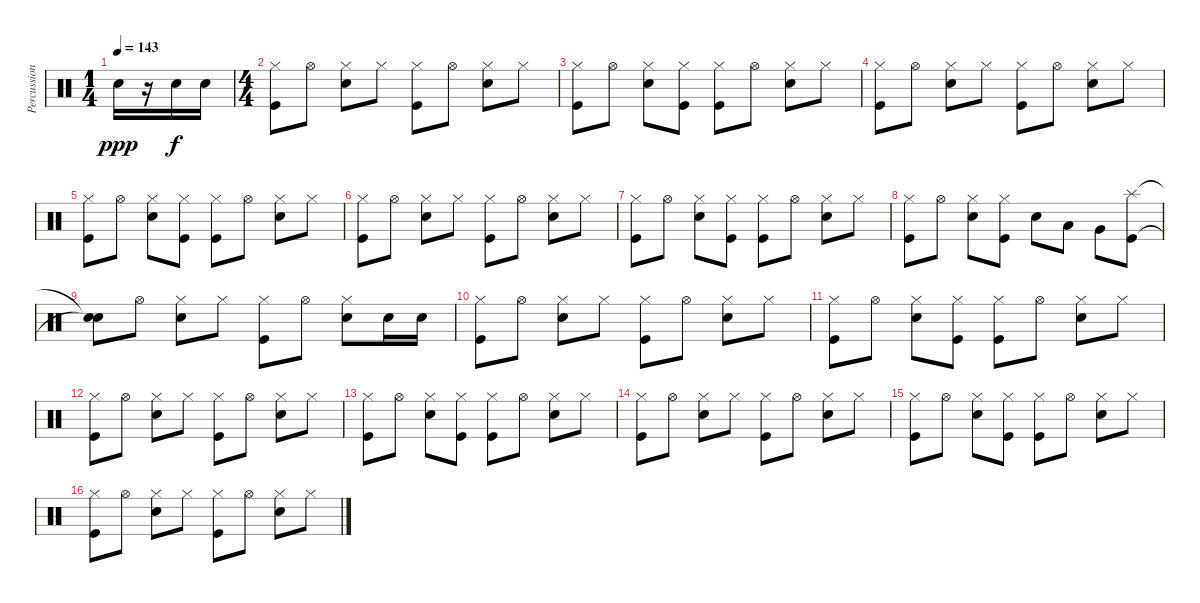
\track ("Percussion" "Percussion") {instrument percussion}
\staff {score}
\articulation defaults
\ts (1 4)
\tempo 143
\clef neutral
\ks c "Snare (hit) 2".16{dy ppp}
r.16 "Snare (hit) 2".16{dy f} "Snare (hit) 2".16 |
\ts (4 4)
("Hi-Hat (closed)" "Kick (hit)").8 "Hi-Hat (open)".8 ("Hi-Hat (closed)" "Snare (hit) 2").8 "Hi-Hat (closed)".8 ("Hi-Hat (closed)" "Kick (hit)").8 "Hi-Hat (open)".8 ("Hi-Hat (closed)" "Snare (hit) 2").8 "Hi-Hat (closed)".8 |
("Hi-Hat (closed)" "Kick (hit)").8 "Hi-Hat (open)".8 ("Hi-Hat (closed)" "Snare (hit) 2").8 ("Hi-Hat (closed)" "Kick (hit)").8 ("Hi-Hat (closed)" "Kick (hit)").8 "Hi-Hat (open)".8 ("Hi-Hat (closed)" "Snare (hit) 2").8 "Hi-Hat (closed)".8 |
("Hi-Hat (closed)" "Kick (hit)").8 "Hi-Hat (open)".8 ("Hi-Hat (closed)" "Snare (hit) 2").8 "Hi-Hat (closed)".8 ("Hi-Hat (closed)" "Kick (hit)").8 "Hi-Hat (open)".8 ("Hi-Hat (closed)" "Snare (hit) 2").8 "Hi-Hat (closed)".8 |
("Hi-Hat (closed)" "Kick (hit)").8 "Hi-Hat (open)".8 ("Hi-Hat (closed)" "Snare (hit) 2").8 ("Hi-Hat (closed)" "Kick (hit)").8 ("Hi-Hat (closed)" "Kick (hit)").8 "Hi-Hat (open)".8 ("Hi-Hat (closed)" "Snare (hit) 2").8 "Hi-Hat (closed)".8 |
("Hi-Hat (closed)" "Kick (hit)").8 "Hi-Hat (open)".8 ("Hi-Hat (closed)" "Snare (hit) 2").8 "Hi-Hat (closed)".8 ("Hi-Hat (closed)" "Kick (hit)").8 "Hi-Hat (open)".8 ("Hi-Hat (closed)" "Snare (hit) 2").8 "Hi-Hat (closed)".8 |
("Hi-Hat (closed)" "Kick (hit)").8 "Hi-Hat (open)".8 ("Hi-Hat (closed)" "Snare (hit) 2").8 ("Hi-Hat (closed)" "Kick (hit)").8 ("Hi-Hat (closed)" "Kick (hit)").8 "Hi-Hat (open)".8 ("Hi-Hat (closed)" "Snare (hit) 2").8 "Hi-Hat (closed)".8 |
("Hi-Hat (closed)" "Kick (hit)").8 "Hi-Hat (open)".8 ("Hi-Hat (closed)" "Snare (hit) 2").8 ("Hi-Hat (closed)" "Kick (hit)").8 "Snare (hit) 2".8 "Low Tom (hit)".8 "Very Low Tom (hit)".8 ("Splash (hit)" "Kick (hit)").8 |
("Snare (hit)"{t} "Snare (hit)"{t}).8 "Hi-Hat (open)".8 ("Hi-Hat (closed)" "Snare (hit) 2").8 "Hi-Hat (closed)".8 ("Hi-Hat (closed)" "Kick (hit)").8 "Hi-Hat (open)".8 ("Hi-Hat (closed)" "Snare (hit) 2").8 "Snare (hit) 2".16 "Snare (hit) 2".16 |
("Hi-Hat (closed)" "Kick (hit)").8 "Hi-Hat (open)".8 ("Hi-Hat (closed)" "Snare (hit) 2").8 "Hi-Hat (closed)".8 ("Hi-Hat (closed)" "Kick (hit)").8 "Hi-Hat (open)".8 ("Hi-Hat (closed)" "Snare (hit) 2").8 "Hi-Hat (closed)".8 |
("Hi-Hat (closed)" "Kick (hit)").8 "Hi-Hat (open)".8 ("Hi-Hat (closed)" "Snare (hit) 2").8 ("Hi-Hat (closed)" "Kick (hit)").8 ("Hi-Hat (closed)" "Kick (hit)").8 "Hi-Hat (open)".8 ("Hi-Hat (closed)" "Snare (hit) 2").8 "Hi-Hat (closed)".8 |
("Hi-Hat (closed)" "Kick (hit)").8 "Hi-Hat (open)".8 ("Hi-Hat (closed)" "Snare (hit) 2").8 "Hi-Hat (closed)".8 ("Hi-Hat (closed)" "Kick (hit)").8 "Hi-Hat (open)".8 ("Hi-Hat (closed)" "Snare (hit) 2").8 "Hi-Hat (closed)".8 |
("Hi-Hat (closed)" "Kick (hit)").8 "Hi-Hat (open)".8 ("Hi-Hat (closed)" "Snare (hit) 2").8 ("Hi-Hat (closed)" "Kick (hit)").8 ("Hi-Hat (closed)" "Kick (hit)").8 "Hi-Hat (open)".8 ("Hi-Hat (closed)" "Snare (hit) 2").8 "Hi-Hat (closed)".8 |
("Hi-Hat (closed)" "Kick (hit)").8 "Hi-Hat (open)".8 ("Hi-Hat (closed)" "Snare (hit) 2").8 "Hi-Hat (closed)".8 ("Hi-Hat (closed)" "Kick (hit)").8 "Hi-Hat (open)".8 ("Hi-Hat (closed)" "Snare (hit) 2").8 "Hi-Hat (closed)".8 |
("Hi-Hat (closed)" "Kick (hit)").8 "Hi-Hat (open)".8 ("Hi-Hat (closed)" "Snare (hit) 2").8 ("Hi-Hat (closed)" "Kick (hit)").8 ("Hi-Hat (closed)" "Kick (hit)").8 "Hi-Hat (open)".8 ("Hi-Hat (closed)" "Snare (hit) 2").8 "Hi-Hat (closed)".8 |
("Hi-Hat (closed)" "Kick (hit)").8 "Hi-Hat (open)".8 ("Hi-Hat (closed)" "Snare (hit) 2").8 "Hi-Hat (closed)".8 ("Hi-Hat (closed)" "Kick (hit)").8 "Hi-Hat (open)".8 ("Hi-Hat (closed)" "Snare (hit) 2").8 "Hi-Hat (closed)".8
